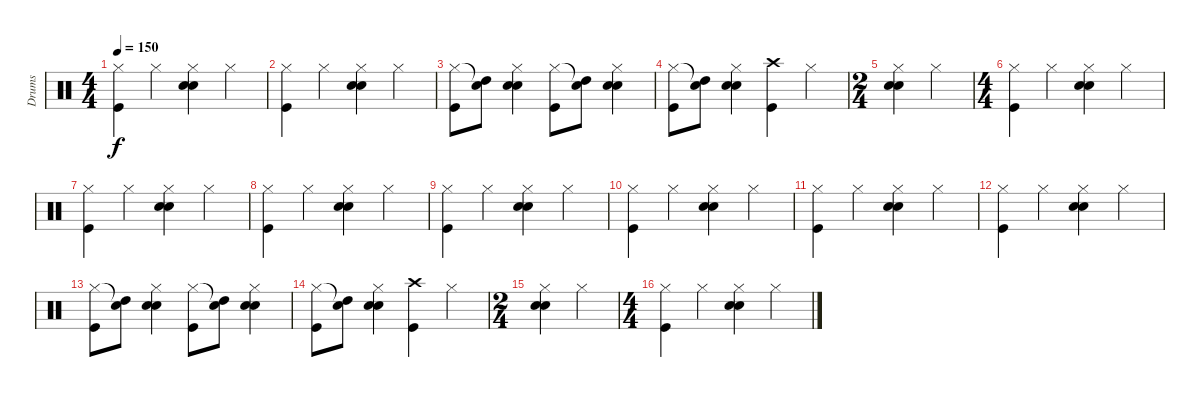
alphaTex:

\track ("Drums" "Drums") {instrument percussion}
\staff {score}
\articulation defaults
\ts (4 4)
\tempo 150
\clef neutral
\ks c
("Hi-Hat (closed)" "Kick (hit)").4{dy f} "Hi-Hat (closed)".4 ("Hi-Hat (closed)" "Hand Clap (hit)" "Snare (hit) 2").4 "Hi-Hat (closed)".4 |
("Hi-Hat (closed)" "Kick (hit)").4 "Hi-Hat (closed)".4 ("Hi-Hat (closed)" "Hand Clap (hit)" "Snare (hit) 2").4 "Hi-Hat (closed)".4 |
("Hi-Hat (closed)" "Kick (hit)").8 ("Snare (hit)"{t} "High Tom (hit)").8 ("Hi-Hat (closed)" "Hand Clap (hit)" "Snare (hit) 2").4 ("Hi-Hat (closed)" "Kick (hit)").8 ("Snare (hit)"{t} "High Tom (hit)").8 ("Hi-Hat (closed)" "Hand Clap (hit)" "Snare (hit) 2").4 |
("Hi-Hat (closed)" "Kick (hit)").8 ("Snare (hit)"{t} "High Tom (hit)").8 ("Hi-Hat (closed)" "Hand Clap (hit)" "Snare (hit) 2").4 ("Crash high (hit)" "Kick (hit)").4 "Hi-Hat (closed)".4 |
\ts (2 4)
("Hi-Hat (closed)" "Hand Clap (hit)" "Snare (hit) 2").4 "Hi-Hat (closed)".4 |
\ts (4 4)
("Hi-Hat (closed)" "Kick (hit)").4 "Hi-Hat (closed)".4 ("Hi-Hat (closed)" "Hand Clap (hit)" "Snare (hit) 2").4 "Hi-Hat (closed)".4 |
("Hi-Hat (closed)" "Kick (hit)").4 "Hi-Hat (closed)".4 ("Hi-Hat (closed)" "Hand Clap (hit)" "Snare (hit) 2").4 "Hi-Hat (closed)".4 |
("Hi-Hat (closed)" "Kick (hit)").4 "Hi-Hat (closed)".4 ("Hi-Hat (closed)" "Hand Clap (hit)" "Snare (hit) 2").4 "Hi-Hat (closed)".4 |
("Hi-Hat (closed)" "Kick (hit)").4 "Hi-Hat (closed)".4 ("Hi-Hat (closed)" "Hand Clap (hit)" "Snare (hit) 2").4 "Hi-Hat (closed)".4 |
("Hi-Hat (closed)" "Kick (hit)").4 "Hi-Hat (closed)".4 ("Hi-Hat (closed)" "Hand Clap (hit)" "Snare (hit) 2").4 "Hi-Hat (closed)".4 |
("Hi-Hat (closed)" "Kick (hit)").4 "Hi-Hat (closed)".4 ("Hi-Hat (closed)" "Hand Clap (hit)" "Snare (hit) 2").4 "Hi-Hat (closed)".4 |
("Hi-Hat (closed)" "Kick (hit)").4 "Hi-Hat (closed)".4 ("Hi-Hat (closed)" "Hand Clap (hit)" "Snare (hit) 2").4 "Hi-Hat (closed)".4 |
("Hi-Hat (closed)" "Kick (hit)").8 ("Snare (hit)"{t} "High Tom (hit)").8 ("Hi-Hat (closed)" "Hand Clap (hit)" "Snare (hit) 2").4 ("Hi-Hat (closed)" "Kick (hit)").8 ("Snare (hit)"{t} "High Tom (hit)").8 ("Hi-Hat (closed)" "Hand Clap (hit)" "Snare (hit) 2").4 |
("Hi-Hat (closed)" "Kick (hit)").8 ("Snare (hit)"{t} "High Tom (hit)").8 ("Hi-Hat (closed)" "Hand Clap (hit)" "Snare (hit) 2").4 ("Crash high (hit)" "Kick (hit)").4 "Hi-Hat (closed)".4 |
\ts (2 4)
("Hi-Hat (closed)" "Hand Clap (hit)" "Snare (hit) 2").4 "Hi-Hat (closed)".4 |
\ts (4 4)
("Hi-Hat (closed)" "Kick (hit)").4 "Hi-Hat (closed)".4 ("Hi-Hat (closed)" "Hand Clap (hit)" "Snare (hit) 2").4 "Hi-Hat (closed)".4
